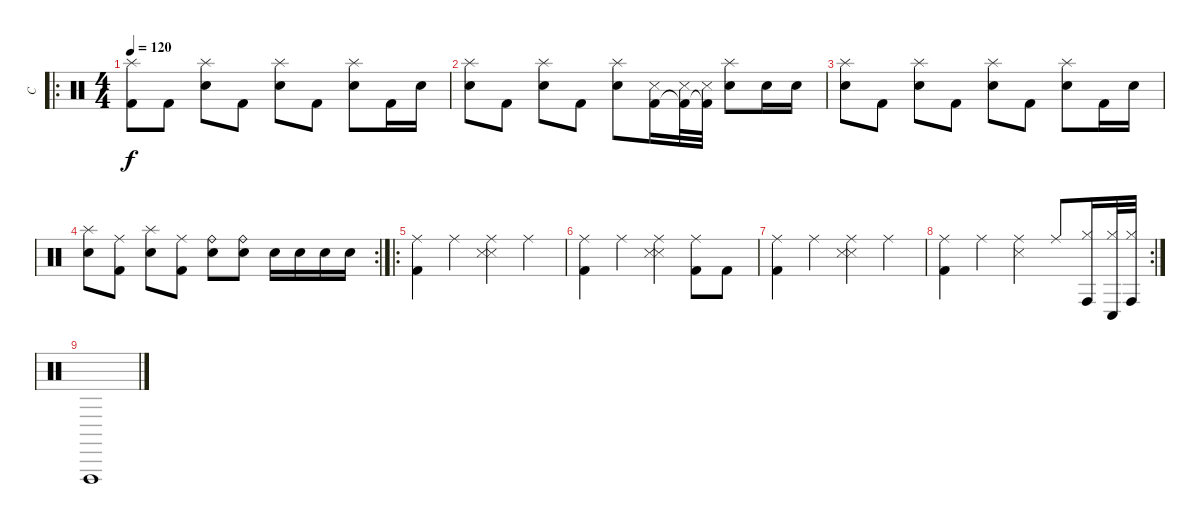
\track ("C" "C") {instrument percussion}
\staff {score}
\articulation defaults
\ro
\ts (4 4)
\tempo 120
\clef neutral
\ks c
("Splash (hit)" "Kick (hit) 2").8{dy f} "Kick (hit) 2".8 ("Splash (hit)" "Electric Snare (hit)").8 "Kick (hit) 2".8 ("Splash (hit)" "Electric Snare (hit)").8 "Kick (hit) 2".8 ("Splash (hit)" "Electric Snare (hit)").8 "Kick (hit) 2".16 "Electric Snare (hit)".16 |
("Splash (hit)" "Electric Snare (hit)").8 "Kick (hit) 2".8 ("Splash (hit)" "Electric Snare (hit)").8 "Kick (hit) 2".8 ("Splash (hit)" "Electric Snare (hit)").8 ("Snare (side stick) 3" "Kick (hit) 2").16 ("Snare (side stick) 3" "Kick (hit) 2"{t}).32 ("Snare (side stick) 3" "Kick (hit) 2"{t}).32 ("Splash (hit)" "Electric Snare (hit)").8 "Electric Snare (hit)".16 "Electric Snare (hit)".16 |
("Splash (hit)" "Electric Snare (hit)").8 "Kick (hit) 2".8 ("Splash (hit)" "Electric Snare (hit)").8 "Kick (hit) 2".8 ("Splash (hit)" "Electric Snare (hit)").8 "Kick (hit) 2".8 ("Splash (hit)" "Electric Snare (hit)").8 "Kick (hit) 2".16 "Electric Snare (hit)".16 |
\rc 2
("Splash (hit)" "Electric Snare (hit)").8 ("Ride (middle)" "Kick (hit) 2").8 ("Splash (hit)" "Electric Snare (hit)").8 ("Ride (middle)" "Kick (hit) 2").8 ("Ride (bell)" "Electric Snare (hit)").8 ("Ride (bell)" "Electric Snare (hit)").8 "Electric Snare (hit)".16 "Electric Snare (hit)".16 "Electric Snare (hit)".16 "Electric Snare (hit)".16 |
\ro
("Ride (middle)" "Kick (hit) 2").4{volume 16 balance 0} "Ride (middle)".4{balance 16} ("Ride (middle)" "Snare (side stick) 3" "Snare (side stick) 3").4{balance 0} "Ride (middle)".4{balance 16} |
("Ride (middle)" "Kick (hit) 2").4{volume 16 balance 0} "Ride (middle)".4{balance 16} ("Ride (middle)" "Snare (side stick) 3" "Snare (side stick) 3").4{balance 0} ("Ride (middle)" "Kick (hit) 2").8{balance 16} "Kick (hit) 2".8 |
("Ride (middle)" "Kick (hit) 2").4{balance 0} "Ride (middle)".4{balance 16} ("Ride (middle)" "Snare (side stick) 3" "Snare (side stick) 3").4{balance 0} "Ride (middle)".4{balance 16} |
\rc 2
("Ride (middle)" "Kick (hit) 2").4{balance 0} "Ride (middle)".4{balance 16} ("Ride (middle)" "Snare (side stick) 3").4{balance 0} "Ride (middle)".8 ("Hi-Hat (closed)" "Conga high (hit)").16 ("Hi-Hat (closed)" "Conga low (hit)").32 ("Hi-Hat (closed)" "Conga high (hit)").32 |
"Vibraslap (hit)".1
